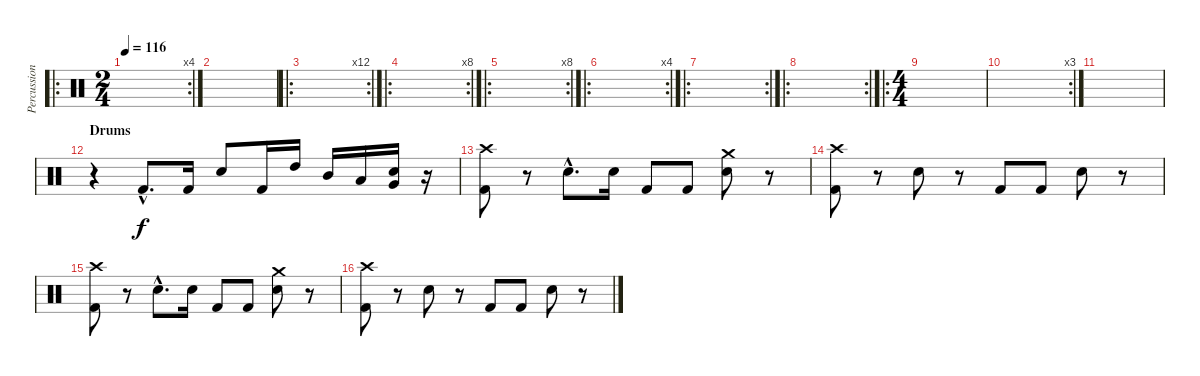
\track ("Percussion" "Percussion") {instrument percussion}
\staff {score}
\articulation defaults
\ro
\rc 4
\ts (2 4)
\tempo 116
\clef neutral
\ks c
|
|
\ro
\rc 12
|
\ro
\rc 8
|
\ro
\rc 8
|
\ro
\rc 4
|
\ro
\rc 2
|
\ro
\rc 2
|
\ro
\ts (4 4)
|
\rc 3
|
|
\section ("" "Drums")
r.4 "Kick (hit) 2"{hac}.8{d} "Kick (hit) 2".16 "Electric Snare (hit)".8 "Kick (hit) 2".16 "High Tom (hit)".16 "Mid Tom (hit)".16 "Low Tom (hit)".16 ("Very Low Tom (hit)" "Electric Snare (hit)").16 r.16 |
("Crash high (hit)" "Kick (hit) 2").8 r.8 "Electric Snare (hit)"{hac}.8{d} "Electric Snare (hit)".16 "Kick (hit) 2".8 "Kick (hit) 2".8 ("Crash medium (hit)" "Electric Snare (hit)").8 r.8 |
("Crash high (hit)" "Kick (hit) 2").8 r.8 "Electric Snare (hit)".8 r.8 "Kick (hit) 2".8 "Kick (hit) 2".8 "Electric Snare (hit)".8 r.8 |
("Crash high (hit)" "Kick (hit) 2").8 r.8 "Electric Snare (hit)"{hac}.8{d} "Electric Snare (hit)".16 "Kick (hit) 2".8 "Kick (hit) 2".8 ("Crash medium (hit)" "Electric Snare (hit)").8 r.8 |
("Crash high (hit)" "Kick (hit) 2").8 r.8 "Electric Snare (hit)".8 r.8 "Kick (hit) 2".8 "Kick (hit) 2".8 "Electric Snare (hit)".8 r.8
